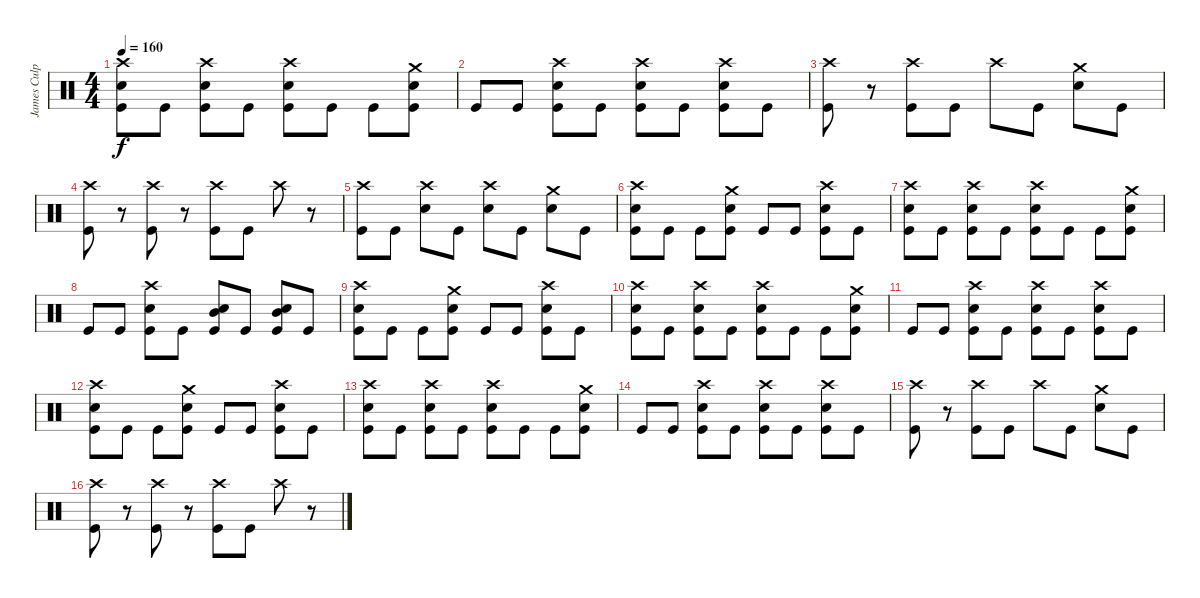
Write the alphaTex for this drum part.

\track ("James Culpepper - drums" "James Culp") {instrument percussion}
\staff {score}
\articulation defaults
\ts (4 4)
\tempo 160
\clef neutral
\ks c
("Crash high (hit)" "Snare (hit) 2" "Kick (hit)").8{dy f} "Kick (hit)".8 ("Crash high (hit)" "Snare (hit) 2" "Kick (hit)").8 "Kick (hit)".8 ("Crash high (hit)" "Snare (hit) 2" "Kick (hit)").8 "Kick (hit)".8 "Kick (hit)".8 ("Crash medium (hit)" "Snare (hit) 2" "Kick (hit)").8 |
"Kick (hit)".8 "Kick (hit)".8 ("Crash high (hit)" "Snare (hit) 2" "Kick (hit)").8 "Kick (hit)".8 ("Crash high (hit)" "Snare (hit) 2" "Kick (hit)").8 "Kick (hit)".8 ("Crash high (hit)" "Snare (hit) 2" "Kick (hit)").8 "Kick (hit)".8 |
("Crash high (hit)" "Kick (hit)").8 r.8 ("Crash high (hit)" "Kick (hit)").8 "Kick (hit)".8 "Crash high (hit)".8 "Kick (hit)".8 ("Crash medium (hit)" "Snare (hit) 2").8 "Kick (hit)".8 |
("Crash high (hit)" "Kick (hit)").8 r.8 ("Crash high (hit)" "Kick (hit)").8 r.8 ("Crash high (hit)" "Kick (hit)").8 "Kick (hit)".8 "Crash high (hit)".8 r.8 |
("Crash high (hit)" "Kick (hit)").8 "Kick (hit)".8 ("Crash high (hit)" "Snare (hit) 2").8 "Kick (hit)".8 ("Crash high (hit)" "Snare (hit) 2").8 "Kick (hit)".8 ("Crash medium (hit)" "Snare (hit) 2").8 "Kick (hit)".8 |
("Crash high (hit)" "Snare (hit) 2" "Kick (hit)").8 "Kick (hit)".8 "Kick (hit)".8 ("Crash medium (hit)" "Snare (hit) 2" "Kick (hit)").8 "Kick (hit)".8 "Kick (hit)".8 ("Crash high (hit)" "Snare (hit) 2" "Kick (hit)").8 "Kick (hit)".8 |
("Crash high (hit)" "Snare (hit) 2" "Kick (hit)").8 "Kick (hit)".8 ("Crash high (hit)" "Snare (hit) 2" "Kick (hit)").8 "Kick (hit)".8 ("Crash high (hit)" "Snare (hit) 2" "Kick (hit)").8 "Kick (hit)".8 "Kick (hit)".8 ("Crash medium (hit)" "Snare (hit) 2" "Kick (hit)").8 |
"Kick (hit)".8 "Kick (hit)".8 ("Crash high (hit)" "Snare (hit) 2" "Kick (hit)").8 "Kick (hit)".8 ("Mid Tom (hit)" "Snare (hit) 2" "Kick (hit)").8 "Kick (hit)".8 ("Mid Tom (hit)" "Snare (hit) 2" "Kick (hit)").8 "Kick (hit)".8 |
("Crash high (hit)" "Snare (hit) 2" "Kick (hit)").8 "Kick (hit)".8 "Kick (hit)".8 ("Crash medium (hit)" "Snare (hit) 2" "Kick (hit)").8 "Kick (hit)".8 "Kick (hit)".8 ("Crash high (hit)" "Snare (hit) 2" "Kick (hit)").8 "Kick (hit)".8 |
("Crash high (hit)" "Snare (hit) 2" "Kick (hit)").8 "Kick (hit)".8 ("Crash high (hit)" "Snare (hit) 2" "Kick (hit)").8 "Kick (hit)".8 ("Crash high (hit)" "Snare (hit) 2" "Kick (hit)").8 "Kick (hit)".8 "Kick (hit)".8 ("Crash medium (hit)" "Snare (hit) 2" "Kick (hit)").8 |
"Kick (hit)".8 "Kick (hit)".8 ("Crash high (hit)" "Snare (hit) 2" "Kick (hit)").8 "Kick (hit)".8 ("Crash high (hit)" "Snare (hit) 2" "Kick (hit)").8 "Kick (hit)".8 ("Crash high (hit)" "Snare (hit) 2" "Kick (hit)").8 "Kick (hit)".8 |
("Crash high (hit)" "Snare (hit) 2" "Kick (hit)").8 "Kick (hit)".8 "Kick (hit)".8 ("Crash medium (hit)" "Snare (hit) 2" "Kick (hit)").8 "Kick (hit)".8 "Kick (hit)".8 ("Crash high (hit)" "Snare (hit) 2" "Kick (hit)").8 "Kick (hit)".8 |
("Crash high (hit)" "Snare (hit) 2" "Kick (hit)").8 "Kick (hit)".8 ("Crash high (hit)" "Snare (hit) 2" "Kick (hit)").8 "Kick (hit)".8 ("Crash high (hit)" "Snare (hit) 2" "Kick (hit)").8 "Kick (hit)".8 "Kick (hit)".8 ("Crash medium (hit)" "Snare (hit) 2" "Kick (hit)").8 |
"Kick (hit)".8 "Kick (hit)".8 ("Crash high (hit)" "Snare (hit) 2" "Kick (hit)").8 "Kick (hit)".8 ("Crash high (hit)" "Snare (hit) 2" "Kick (hit)").8 "Kick (hit)".8 ("Crash high (hit)" "Snare (hit) 2" "Kick (hit)").8 "Kick (hit)".8 |
("Crash high (hit)" "Kick (hit)").8 r.8 ("Crash high (hit)" "Kick (hit)").8 "Kick (hit)".8 "Crash high (hit)".8 "Kick (hit)".8 ("Crash medium (hit)" "Snare (hit) 2").8 "Kick (hit)".8 |
("Crash high (hit)" "Kick (hit)").8 r.8 ("Crash high (hit)" "Kick (hit)").8 r.8 ("Crash high (hit)" "Kick (hit)").8 "Kick (hit)".8 "Crash high (hit)".8 r.8
